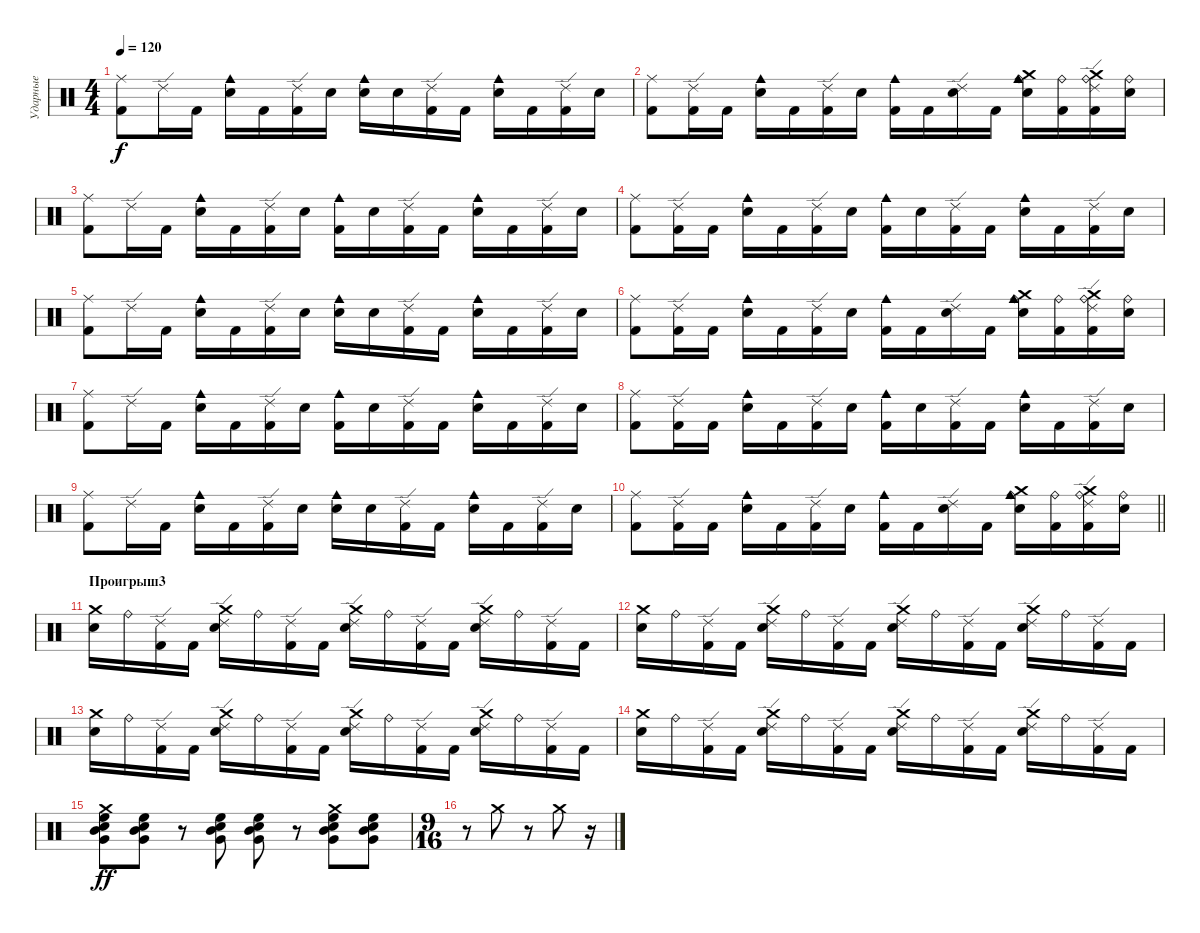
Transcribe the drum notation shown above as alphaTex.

\track ("Ударные" "Ударные") {instrument percussion}
\staff {score}
\articulation defaults
\ts (4 4)
\tempo 120
\clef neutral
\ks c
("Ride (middle)" "Kick (hit) 2").8{dy f} "Ride (edge) 2".16 "Kick (hit) 2".16 ("Cowbell medium (hit)" "Electric Snare (hit)").16 "Kick (hit) 2".16 ("Ride (edge) 2" "Kick (hit) 2").16 "Electric Snare (hit)".16 ("Cowbell medium (hit)" "Electric Snare (hit)").16 "Electric Snare (hit)".16 ("Ride (edge) 2" "Kick (hit) 2").16 "Kick (hit) 2".16 ("Cowbell medium (hit)" "Electric Snare (hit)").16 "Kick (hit) 2".16 ("Ride (edge) 2" "Kick (hit) 2").16 "Electric Snare (hit)".16 |
("Kick (hit) 2" "Ride (middle)").8 ("Kick (hit) 2" "Ride (edge) 2").16 "Kick (hit) 2".16 ("Electric Snare (hit)" "Cowbell medium (hit)").16 "Kick (hit) 2".16 ("Kick (hit) 2" "Ride (edge) 2").16 "Electric Snare (hit)".16 ("Kick (hit) 2" "Cowbell medium (hit)").16 "Kick (hit) 2".16 ("Electric Snare (hit)" "Ride (edge) 2").16 "Kick (hit) 2".16 ("Electric Snare (hit)" "Ride (bell)" "Crash medium (hit)" "Cowbell medium (hit)").16 ("Kick (hit) 2" "Ride (bell)").16 ("Kick (hit) 2" "Ride (bell)" "Crash medium (hit)" "Ride (edge) 2").16 ("Electric Snare (hit)" "Ride (bell)").16 |
("Ride (middle)" "Kick (hit) 2").8 "Ride (edge) 2".16 "Kick (hit) 2".16 ("Cowbell medium (hit)" "Electric Snare (hit)").16 "Kick (hit) 2".16 ("Ride (edge) 2" "Kick (hit) 2").16 "Electric Snare (hit)".16 ("Cowbell medium (hit)" "Kick (hit) 2").16 "Electric Snare (hit)".16 ("Ride (edge) 2" "Kick (hit) 2").16 "Kick (hit) 2".16 ("Cowbell medium (hit)" "Electric Snare (hit)").16 "Kick (hit) 2".16 ("Ride (edge) 2" "Kick (hit) 2").16 "Electric Snare (hit)".16 |
("Kick (hit) 2" "Ride (middle)").8 ("Kick (hit) 2" "Ride (edge) 2").16 "Kick (hit) 2".16 ("Electric Snare (hit)" "Cowbell medium (hit)").16 "Kick (hit) 2".16 ("Kick (hit) 2" "Ride (edge) 2").16 "Electric Snare (hit)".16 ("Kick (hit) 2" "Cowbell medium (hit)").16 "Electric Snare (hit)".16 ("Kick (hit) 2" "Ride (edge) 2").16 "Kick (hit) 2".16 ("Electric Snare (hit)" "Cowbell medium (hit)").16 "Kick (hit) 2".16 ("Kick (hit) 2" "Ride (edge) 2").16 "Electric Snare (hit)".16 |
("Ride (middle)" "Kick (hit) 2").8 "Ride (edge) 2".16 "Kick (hit) 2".16 ("Cowbell medium (hit)" "Electric Snare (hit)").16 "Kick (hit) 2".16 ("Ride (edge) 2" "Kick (hit) 2").16 "Electric Snare (hit)".16 ("Cowbell medium (hit)" "Electric Snare (hit)").16 "Electric Snare (hit)".16 ("Ride (edge) 2" "Kick (hit) 2").16 "Kick (hit) 2".16 ("Cowbell medium (hit)" "Electric Snare (hit)").16 "Kick (hit) 2".16 ("Ride (edge) 2" "Kick (hit) 2").16 "Electric Snare (hit)".16 |
("Kick (hit) 2" "Ride (middle)").8 ("Kick (hit) 2" "Ride (edge) 2").16 "Kick (hit) 2".16 ("Electric Snare (hit)" "Cowbell medium (hit)").16 "Kick (hit) 2".16 ("Kick (hit) 2" "Ride (edge) 2").16 "Electric Snare (hit)".16 ("Kick (hit) 2" "Cowbell medium (hit)").16 "Kick (hit) 2".16 ("Electric Snare (hit)" "Ride (edge) 2").16 "Kick (hit) 2".16 ("Electric Snare (hit)" "Ride (bell)" "Crash medium (hit)" "Cowbell medium (hit)").16 ("Kick (hit) 2" "Ride (bell)").16 ("Kick (hit) 2" "Ride (bell)" "Crash medium (hit)" "Ride (edge) 2").16 ("Electric Snare (hit)" "Ride (bell)").16 |
("Ride (middle)" "Kick (hit) 2").8 "Ride (edge) 2".16 "Kick (hit) 2".16 ("Cowbell medium (hit)" "Electric Snare (hit)").16 "Kick (hit) 2".16 ("Ride (edge) 2" "Kick (hit) 2").16 "Electric Snare (hit)".16 ("Cowbell medium (hit)" "Kick (hit) 2").16 "Electric Snare (hit)".16 ("Ride (edge) 2" "Kick (hit) 2").16 "Kick (hit) 2".16 ("Cowbell medium (hit)" "Electric Snare (hit)").16 "Kick (hit) 2".16 ("Ride (edge) 2" "Kick (hit) 2").16 "Electric Snare (hit)".16 |
("Kick (hit) 2" "Ride (middle)").8 ("Kick (hit) 2" "Ride (edge) 2").16 "Kick (hit) 2".16 ("Electric Snare (hit)" "Cowbell medium (hit)").16 "Kick (hit) 2".16 ("Kick (hit) 2" "Ride (edge) 2").16 "Electric Snare (hit)".16 ("Kick (hit) 2" "Cowbell medium (hit)").16 "Electric Snare (hit)".16 ("Kick (hit) 2" "Ride (edge) 2").16 "Kick (hit) 2".16 ("Electric Snare (hit)" "Cowbell medium (hit)").16 "Kick (hit) 2".16 ("Kick (hit) 2" "Ride (edge) 2").16 "Electric Snare (hit)".16 |
("Ride (middle)" "Kick (hit) 2").8 "Ride (edge) 2".16 "Kick (hit) 2".16 ("Cowbell medium (hit)" "Electric Snare (hit)").16 "Kick (hit) 2".16 ("Ride (edge) 2" "Kick (hit) 2").16 "Electric Snare (hit)".16 ("Cowbell medium (hit)" "Electric Snare (hit)").16 "Electric Snare (hit)".16 ("Ride (edge) 2" "Kick (hit) 2").16 "Kick (hit) 2".16 ("Cowbell medium (hit)" "Electric Snare (hit)").16 "Kick (hit) 2".16 ("Ride (edge) 2" "Kick (hit) 2").16 "Electric Snare (hit)".16 |
\barLineRight lightlight
("Kick (hit) 2" "Ride (middle)").8 ("Kick (hit) 2" "Ride (edge) 2").16 "Kick (hit) 2".16 ("Electric Snare (hit)" "Cowbell medium (hit)").16 "Kick (hit) 2".16 ("Kick (hit) 2" "Ride (edge) 2").16 "Electric Snare (hit)".16 ("Kick (hit) 2" "Cowbell medium (hit)").16 "Kick (hit) 2".16 ("Electric Snare (hit)" "Ride (edge) 2").16 "Kick (hit) 2".16 ("Electric Snare (hit)" "Ride (bell)" "Crash medium (hit)" "Cowbell medium (hit)").16 ("Kick (hit) 2" "Ride (bell)").16 ("Kick (hit) 2" "Ride (bell)" "Crash medium (hit)" "Ride (edge) 2").16 ("Electric Snare (hit)" "Ride (bell)").16 |
\section ("" "Проигрыш3")
("Crash medium (hit)" "Electric Snare (hit)").16 "Ride (bell)".16 ("Ride (edge) 2" "Kick (hit) 2").16 "Kick (hit) 2".16 ("Crash medium (hit)" "Ride (edge) 2" "Electric Snare (hit)").16 "Ride (bell)".16 ("Ride (edge) 2" "Kick (hit) 2").16 "Kick (hit) 2".16 ("Crash medium (hit)" "Ride (edge) 2" "Electric Snare (hit)").16 "Ride (bell)".16 ("Ride (edge) 2" "Kick (hit) 2").16 "Kick (hit) 2".16 ("Crash medium (hit)" "Ride (edge) 2" "Electric Snare (hit)").16 "Ride (bell)".16 ("Ride (edge) 2" "Kick (hit) 2").16 "Kick (hit) 2".16 |
("Crash medium (hit)" "Electric Snare (hit)").16 "Ride (bell)".16 ("Ride (edge) 2" "Kick (hit) 2").16 "Kick (hit) 2".16 ("Crash medium (hit)" "Ride (edge) 2" "Electric Snare (hit)").16 "Ride (bell)".16 ("Ride (edge) 2" "Kick (hit) 2").16 "Kick (hit) 2".16 ("Crash medium (hit)" "Ride (edge) 2" "Electric Snare (hit)").16 "Ride (bell)".16 ("Ride (edge) 2" "Kick (hit) 2").16 "Kick (hit) 2".16 ("Crash medium (hit)" "Ride (edge) 2" "Electric Snare (hit)").16 "Ride (bell)".16 ("Ride (edge) 2" "Kick (hit) 2").16 "Kick (hit) 2".16 |
("Crash medium (hit)" "Electric Snare (hit)").16 "Ride (bell)".16 ("Ride (edge) 2" "Kick (hit) 2").16 "Kick (hit) 2".16 ("Crash medium (hit)" "Ride (edge) 2" "Electric Snare (hit)").16 "Ride (bell)".16 ("Ride (edge) 2" "Kick (hit) 2").16 "Kick (hit) 2".16 ("Crash medium (hit)" "Ride (edge) 2" "Electric Snare (hit)").16 "Ride (bell)".16 ("Ride (edge) 2" "Kick (hit) 2").16 "Kick (hit) 2".16 ("Crash medium (hit)" "Ride (edge) 2" "Electric Snare (hit)").16 "Ride (bell)".16 ("Ride (edge) 2" "Kick (hit) 2").16 "Kick (hit) 2".16 |
("Crash medium (hit)" "Electric Snare (hit)").16 "Ride (bell)".16 ("Ride (edge) 2" "Kick (hit) 2").16 "Kick (hit) 2".16 ("Crash medium (hit)" "Ride (edge) 2" "Electric Snare (hit)").16 "Ride (bell)".16 ("Ride (edge) 2" "Kick (hit) 2").16 "Kick (hit) 2".16 ("Crash medium (hit)" "Ride (edge) 2" "Electric Snare (hit)").16 "Ride (bell)".16 ("Ride (edge) 2" "Kick (hit) 2").16 "Kick (hit) 2".16 ("Crash medium (hit)" "Ride (edge) 2" "Electric Snare (hit)").16 "Ride (bell)".16 ("Ride (edge) 2" "Kick (hit) 2").16 "Kick (hit) 2".16 |
("Electric Snare (hit)" "Crash medium (hit)" "Mid Tom (hit)" "Very Low Tom (hit)" "High Floor Tom (hit)").8{dy ff} ("Electric Snare (hit)" "Very Low Tom (hit)" "Mid Tom (hit)" "High Floor Tom (hit)").8 r.8 ("Electric Snare (hit)" "Mid Tom (hit)" "Very Low Tom (hit)" "High Floor Tom (hit)").8 ("Electric Snare (hit)" "Mid Tom (hit)" "Very Low Tom (hit)" "High Floor Tom (hit)").8 r.8 ("Electric Snare (hit)" "Crash medium (hit)" "Mid Tom (hit)" "Very Low Tom (hit)" "High Floor Tom (hit)").8 ("Electric Snare (hit)" "Mid Tom (hit)" "Very Low Tom (hit)" "High Floor Tom (hit)").8 |
\ts (9 16)
r.8 "Crash medium (hit)".8 r.8 "Crash medium (hit)".8 r.16
